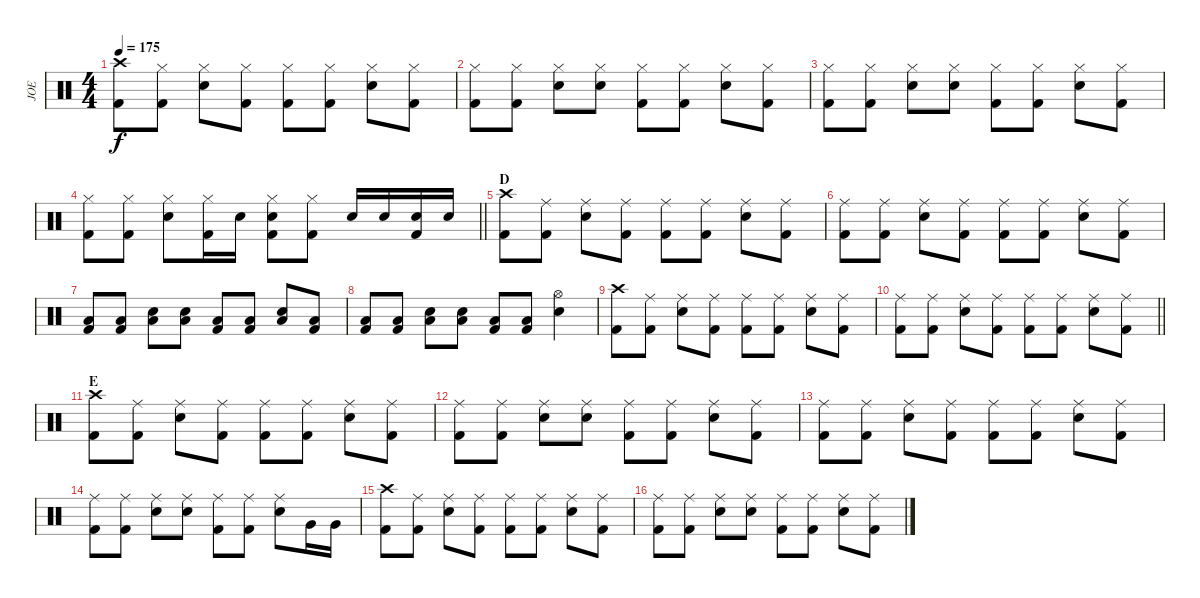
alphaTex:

\track ("JOE" "JOE") {instrument percussion}
\staff {score}
\articulation defaults
\ts (4 4)
\tempo 175
\clef neutral
\ks c
("Crash high (hit)" "Kick (hit) 2").8{dy f} ("Hi-Hat (closed)" "Kick (hit) 2").8 ("Hi-Hat (closed)" "Snare (hit) 2").8 ("Hi-Hat (closed)" "Kick (hit) 2").8 ("Hi-Hat (closed)" "Kick (hit) 2").8 ("Hi-Hat (closed)" "Kick (hit) 2").8 ("Hi-Hat (closed)" "Snare (hit) 2").8 ("Hi-Hat (closed)" "Kick (hit) 2").8 |
("Hi-Hat (closed)" "Kick (hit) 2").8 ("Hi-Hat (closed)" "Kick (hit) 2").8 ("Hi-Hat (closed)" "Snare (hit) 2").8 ("Hi-Hat (closed)" "Snare (hit) 2").8 ("Hi-Hat (closed)" "Kick (hit) 2").8 ("Hi-Hat (closed)" "Kick (hit) 2").8 ("Hi-Hat (closed)" "Snare (hit) 2").8 ("Hi-Hat (closed)" "Kick (hit) 2").8 |
("Hi-Hat (closed)" "Kick (hit) 2").8 ("Hi-Hat (closed)" "Kick (hit) 2").8 ("Hi-Hat (closed)" "Snare (hit) 2").8 ("Hi-Hat (closed)" "Snare (hit) 2").8 ("Hi-Hat (closed)" "Kick (hit) 2").8 ("Hi-Hat (closed)" "Kick (hit) 2").8 ("Hi-Hat (closed)" "Snare (hit) 2").8 ("Hi-Hat (closed)" "Kick (hit) 2").8 |
\barLineRight lightlight
("Hi-Hat (closed)" "Kick (hit) 2").8 ("Hi-Hat (closed)" "Kick (hit) 2").8 ("Hi-Hat (closed)" "Snare (hit) 2").8 ("Hi-Hat (closed)" "Kick (hit) 2").16 "Snare (hit) 2".16 ("Hi-Hat (closed)" "Snare (hit) 2" "Kick (hit) 2").8 ("Hi-Hat (closed)" "Kick (hit) 2").8 "Snare (hit) 2".16 "Snare (hit) 2".16 ("Snare (hit) 2" "Kick (hit) 2").16 "Snare (hit) 2".16 |
\section ("" "D")
("Crash high (hit)" "Kick (hit) 2").8 ("Ride (middle)" "Kick (hit) 2").8 ("Ride (middle)" "Snare (hit) 2").8 ("Ride (middle)" "Kick (hit) 2").8 ("Ride (middle)" "Kick (hit) 2").8 ("Ride (middle)" "Kick (hit) 2").8 ("Ride (middle)" "Snare (hit) 2").8 ("Ride (middle)" "Kick (hit) 2").8 |
("Ride (middle)" "Kick (hit) 2").8 ("Ride (middle)" "Kick (hit) 2").8 ("Ride (middle)" "Snare (hit) 2").8 ("Ride (middle)" "Kick (hit) 2").8 ("Ride (middle)" "Kick (hit) 2").8 ("Ride (middle)" "Kick (hit) 2").8 ("Ride (middle)" "Snare (hit) 2").8 ("Ride (middle)" "Kick (hit) 2").8 |
("Low Floor Tom (hit)" "Kick (hit) 2").8 ("Low Floor Tom (hit)" "Kick (hit) 2").8 ("Low Floor Tom (hit)" "Snare (hit) 2").8 ("Low Floor Tom (hit)" "Snare (hit) 2").8 ("Low Floor Tom (hit)" "Kick (hit) 2").8 ("Low Floor Tom (hit)" "Kick (hit) 2").8 ("Low Floor Tom (hit)" "Snare (hit) 2").8 ("Low Floor Tom (hit)" "Kick (hit) 2").8 |
("Low Floor Tom (hit)" "Kick (hit) 2").8 ("Low Floor Tom (hit)" "Kick (hit) 2").8 ("Low Floor Tom (hit)" "Snare (hit) 2").8 ("Low Floor Tom (hit)" "Snare (hit) 2").8 ("Low Floor Tom (hit)" "Kick (hit) 2").8 ("Low Floor Tom (hit)" "Kick (hit) 2").8 ("Hi-Hat (open)" "Snare (hit) 2").4 |
("Crash high (hit)" "Kick (hit) 2").8 ("Ride (middle)" "Kick (hit) 2").8 ("Ride (middle)" "Snare (hit) 2").8 ("Ride (middle)" "Kick (hit) 2").8 ("Ride (middle)" "Kick (hit) 2").8 ("Ride (middle)" "Kick (hit) 2").8 ("Ride (middle)" "Snare (hit) 2").8 ("Ride (middle)" "Kick (hit) 2").8 |
\barLineRight lightlight
("Ride (middle)" "Kick (hit) 2").8 ("Ride (middle)" "Kick (hit) 2").8 ("Ride (middle)" "Snare (hit) 2").8 ("Ride (middle)" "Kick (hit) 2").8 ("Ride (middle)" "Kick (hit) 2").8 ("Ride (middle)" "Kick (hit) 2").8 ("Ride (middle)" "Snare (hit) 2").8 ("Ride (middle)" "Kick (hit) 2").8 |
\section ("" "E")
("Crash high (hit)" "Kick (hit) 2").8 ("Ride (middle)" "Kick (hit) 2").8 ("Ride (middle)" "Snare (hit) 2").8 ("Ride (middle)" "Kick (hit) 2").8 ("Ride (middle)" "Kick (hit) 2").8 ("Ride (middle)" "Kick (hit) 2").8 ("Ride (middle)" "Snare (hit) 2").8 ("Ride (middle)" "Kick (hit) 2").8 |
("Ride (middle)" "Kick (hit) 2").8 ("Ride (middle)" "Kick (hit) 2").8 ("Ride (middle)" "Snare (hit) 2").8 ("Ride (middle)" "Snare (hit) 2").8 ("Ride (middle)" "Kick (hit) 2").8 ("Ride (middle)" "Kick (hit) 2").8 ("Ride (middle)" "Snare (hit) 2").8 ("Ride (middle)" "Kick (hit) 2").8 |
("Ride (middle)" "Kick (hit) 2").8 ("Ride (middle)" "Kick (hit) 2").8 ("Ride (middle)" "Snare (hit) 2").8 ("Ride (middle)" "Kick (hit) 2").8 ("Ride (middle)" "Kick (hit) 2").8 ("Ride (middle)" "Kick (hit) 2").8 ("Ride (middle)" "Snare (hit) 2").8 ("Ride (middle)" "Kick (hit) 2").8 |
("Ride (middle)" "Kick (hit) 2").8 ("Ride (middle)" "Kick (hit) 2").8 ("Ride (middle)" "Snare (hit) 2").8 ("Ride (middle)" "Snare (hit) 2").8 ("Ride (middle)" "Kick (hit) 2").8 ("Ride (middle)" "Kick (hit) 2").8 ("Ride (middle)" "Snare (hit) 2").8 "Very Low Tom (hit)".16 "Very Low Tom (hit)".16 |
("Crash high (hit)" "Kick (hit) 2").8 ("Ride (middle)" "Kick (hit) 2").8 ("Ride (middle)" "Snare (hit) 2").8 ("Ride (middle)" "Kick (hit) 2").8 ("Ride (middle)" "Kick (hit) 2").8 ("Ride (middle)" "Kick (hit) 2").8 ("Ride (middle)" "Snare (hit) 2").8 ("Ride (middle)" "Kick (hit) 2").8 |
("Ride (middle)" "Kick (hit) 2").8 ("Ride (middle)" "Kick (hit) 2").8 ("Ride (middle)" "Snare (hit) 2").8 ("Ride (middle)" "Snare (hit) 2").8 ("Ride (middle)" "Kick (hit) 2").8 ("Ride (middle)" "Kick (hit) 2").8 ("Ride (middle)" "Snare (hit) 2").8 ("Ride (middle)" "Kick (hit) 2").8
